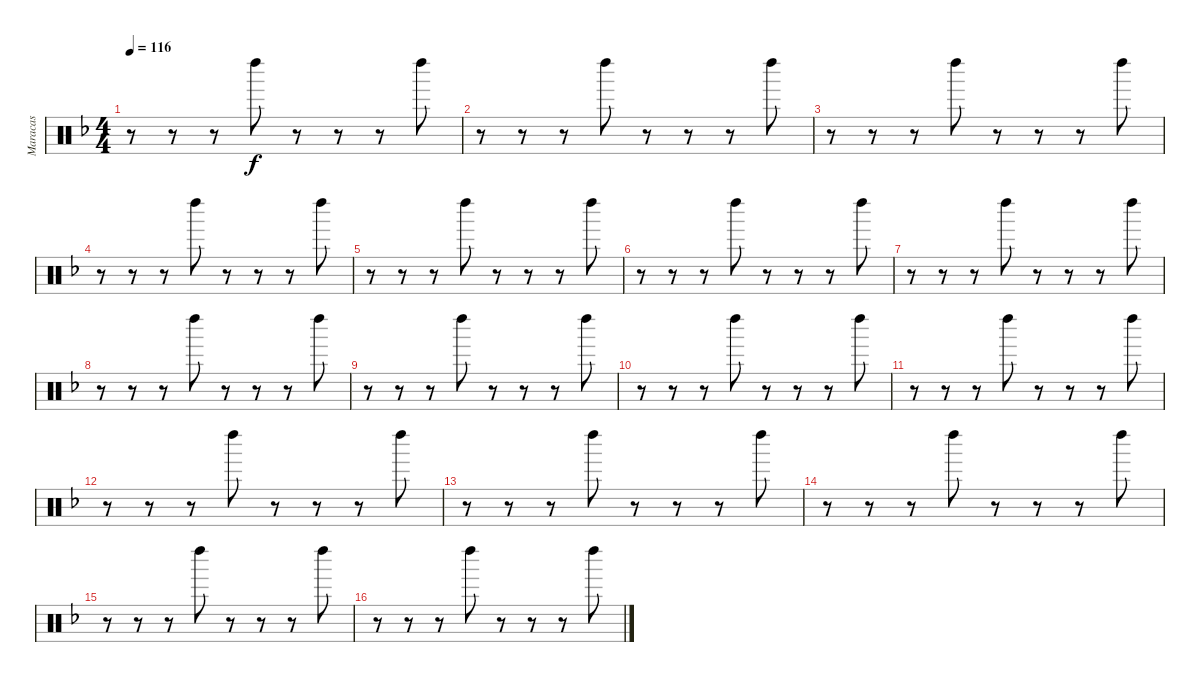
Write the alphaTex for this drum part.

\track ("Maracas" "Maracas") {instrument percussion}
\staff {score}
\articulation defaults
\ts (4 4)
\tempo 116
\clef neutral
\ks dminor
r.8{dy f} r.8 r.8 "Left Maraca (hit)".8 r.8 r.8 r.8 "Left Maraca (hit)".8 |
r.8 r.8 r.8 "Left Maraca (hit)".8 r.8 r.8 r.8 "Left Maraca (hit)".8 |
r.8 r.8 r.8 "Left Maraca (hit)".8 r.8 r.8 r.8 "Left Maraca (hit)".8 |
r.8 r.8 r.8 "Left Maraca (hit)".8 r.8 r.8 r.8 "Left Maraca (hit)".8 |
r.8 r.8 r.8 "Left Maraca (hit)".8 r.8 r.8 r.8 "Left Maraca (hit)".8 |
r.8 r.8 r.8 "Left Maraca (hit)".8 r.8 r.8 r.8 "Left Maraca (hit)".8 |
r.8 r.8 r.8 "Left Maraca (hit)".8 r.8 r.8 r.8 "Left Maraca (hit)".8 |
r.8 r.8 r.8 "Left Maraca (hit)".8 r.8 r.8 r.8 "Left Maraca (hit)".8 |
r.8 r.8 r.8 "Left Maraca (hit)".8 r.8 r.8 r.8 "Left Maraca (hit)".8 |
r.8 r.8 r.8 "Left Maraca (hit)".8 r.8 r.8 r.8 "Left Maraca (hit)".8 |
r.8 r.8 r.8 "Left Maraca (hit)".8 r.8 r.8 r.8 "Left Maraca (hit)".8 |
r.8 r.8 r.8 "Left Maraca (hit)".8 r.8 r.8 r.8 "Left Maraca (hit)".8 |
r.8 r.8 r.8 "Left Maraca (hit)".8 r.8 r.8 r.8 "Left Maraca (hit)".8 |
r.8 r.8 r.8 "Left Maraca (hit)".8 r.8 r.8 r.8 "Left Maraca (hit)".8 |
r.8 r.8 r.8 "Left Maraca (hit)".8 r.8 r.8 r.8 "Left Maraca (hit)".8 |
r.8 r.8 r.8 "Left Maraca (hit)".8 r.8 r.8 r.8 "Left Maraca (hit)".8
